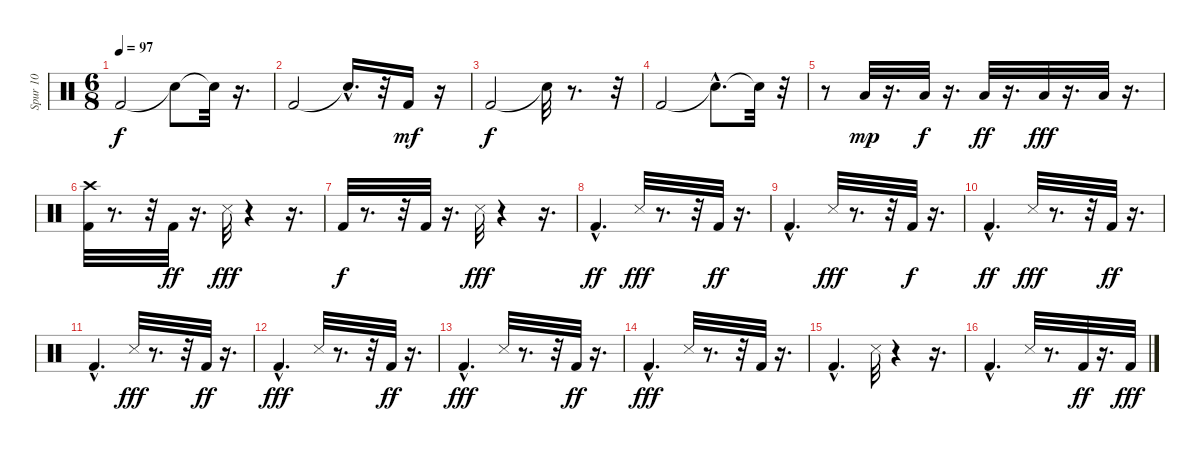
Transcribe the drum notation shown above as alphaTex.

\track ("Spur 10" "Spur 10") {instrument percussion}
\staff {score}
\articulation defaults
\ts (6 8)
\tempo 97
\clef neutral
\ks c "Kick (hit) 2".2{dy f} "Snare (hit)"{t}.8 "Snare (hit)"{t}.32
r.16{d} |
"Kick (hit) 2".2 "Snare (hit)"{hac t}.16{d} r.32 "Kick (hit) 2".16{dy mf} r.16 |
"Kick (hit) 2".2{dy f} "Snare (hit)"{t}.32 r.8{d} r.32 |
"Kick (hit) 2".2 "Snare (hit)"{hac t}.8{d} "Snare (hit)"{t}.32 r.32 |
r.8 "Low Floor Tom (hit)".32{dy mp} r.16{d} "Low Floor Tom (hit)".32{dy f} r.16{d} "Low Floor Tom (hit)".32{dy ff} r.16{d} "Low Floor Tom (hit)".32{dy fff} r.16{d} "Low Floor Tom (hit)".32 r.16{d} |
("Kick (hit) 2" "Crash high (hit)").32 r.8{d} r.32 "Kick (hit) 2".32{dy ff} r.16{d} "Snare (side stick) 3".32{dy fff} r.4 r.16{d} |
"Kick (hit) 2".32{dy f} r.8{d} r.32 "Kick (hit) 2".32 r.16{d} "Snare (side stick) 3".32{dy fff} r.4 r.16{d} |
"Kick (hit) 2"{hac}.4{d dy ff} "Snare (side stick) 3".32{dy fff} r.8{d} r.32 "Kick (hit) 2".32{dy ff} r.16{d} |
"Kick (hit) 2"{hac}.4{d} "Snare (side stick) 3".32{dy fff} r.8{d} r.32 "Kick (hit) 2".32{dy f} r.16{d} |
"Kick (hit) 2"{hac}.4{d dy ff} "Snare (side stick) 3".32{dy fff} r.8{d} r.32 "Kick (hit) 2".32{dy ff} r.16{d} |
"Kick (hit) 2"{hac}.4{d} "Snare (side stick) 3".32{dy fff} r.8{d} r.32 "Kick (hit) 2".32{dy ff} r.16{d} |
"Kick (hit) 2"{hac}.4{d dy fff} "Snare (side stick) 3".32 r.8{d} r.32 "Kick (hit) 2".32{dy ff} r.16{d} |
"Kick (hit) 2"{hac}.4{d dy fff} "Snare (side stick) 3".32 r.8{d} r.32 "Kick (hit) 2".32{dy ff} r.16{d} |
"Kick (hit) 2"{hac}.4{d dy fff} "Snare (side stick) 3".32 r.8{d} r.32 "Kick (hit) 2".32 r.16{d} |
"Kick (hit) 2"{hac}.4{d} "Snare (side stick) 3".32 r.4 r.16{d} |
"Kick (hit) 2"{hac}.4{d} "Snare (side stick) 3".32 r.8{d} "Kick (hit) 2".32{dy ff} r.16{d} "Kick (hit) 2".32{dy fff}
